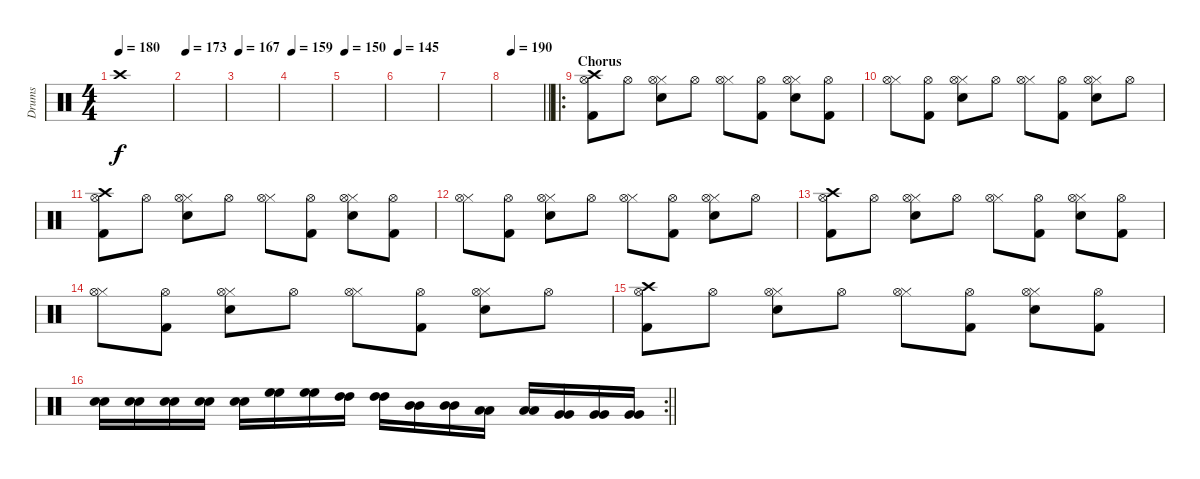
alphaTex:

\track ("Drums" "Drums") {instrument percussion}
\staff {score}
\articulation defaults
\ts (4 4)
\tempo 180
\clef neutral
\ks c "Crash high (hit)".1{dy f}
|
\tempo 173
|
\tempo 167
|
\tempo 159
|
\tempo 150
|
\tempo 145
|
|
\tempo (190 0.1875)
\barLineRight lightlight
|
\ro
\section ("" "Chorus")
("Hi-Hat (open)" "Kick (hit) 2" "Crash high (hit)").8 "Hi-Hat (open)".8 ("Hi-Hat (closed)" "Snare (hit) 2" "Hi-Hat (open)").8 "Hi-Hat (open)".8 ("Hi-Hat (closed)" "Hi-Hat (open)").8 ("Kick (hit) 2" "Hi-Hat (open)").8 ("Hi-Hat (closed)" "Snare (hit) 2" "Hi-Hat (open)").8 ("Kick (hit) 2" "Hi-Hat (open)").8 |
("Hi-Hat (closed)" "Hi-Hat (open)").8 ("Kick (hit) 2" "Hi-Hat (open)").8 ("Hi-Hat (closed)" "Snare (hit) 2" "Hi-Hat (open)").8 "Hi-Hat (open)".8 ("Hi-Hat (closed)" "Hi-Hat (open)").8 ("Kick (hit) 2" "Hi-Hat (open)").8 ("Hi-Hat (closed)" "Snare (hit) 2" "Hi-Hat (open)").8 "Hi-Hat (open)".8 |
("Hi-Hat (open)" "Kick (hit) 2" "Crash high (hit)").8 "Hi-Hat (open)".8 ("Hi-Hat (closed)" "Snare (hit) 2" "Hi-Hat (open)").8 "Hi-Hat (open)".8 ("Hi-Hat (closed)" "Hi-Hat (open)").8 ("Kick (hit) 2" "Hi-Hat (open)").8 ("Hi-Hat (closed)" "Snare (hit) 2" "Hi-Hat (open)").8 ("Kick (hit) 2" "Hi-Hat (open)").8 |
("Hi-Hat (closed)" "Hi-Hat (open)").8 ("Kick (hit) 2" "Hi-Hat (open)").8 ("Hi-Hat (closed)" "Snare (hit) 2" "Hi-Hat (open)").8 "Hi-Hat (open)".8 ("Hi-Hat (closed)" "Hi-Hat (open)").8 ("Kick (hit) 2" "Hi-Hat (open)").8 ("Hi-Hat (closed)" "Snare (hit) 2" "Hi-Hat (open)").8 "Hi-Hat (open)".8 |
("Hi-Hat (open)" "Kick (hit) 2" "Crash high (hit)").8 "Hi-Hat (open)".8 ("Hi-Hat (closed)" "Snare (hit) 2" "Hi-Hat (open)").8 "Hi-Hat (open)".8 ("Hi-Hat (closed)" "Hi-Hat (open)").8 ("Kick (hit) 2" "Hi-Hat (open)").8 ("Hi-Hat (closed)" "Snare (hit) 2" "Hi-Hat (open)").8 ("Kick (hit) 2" "Hi-Hat (open)").8 |
("Hi-Hat (closed)" "Hi-Hat (open)").8 ("Kick (hit) 2" "Hi-Hat (open)").8 ("Hi-Hat (closed)" "Snare (hit) 2" "Hi-Hat (open)").8 "Hi-Hat (open)".8 ("Hi-Hat (closed)" "Hi-Hat (open)").8 ("Kick (hit) 2" "Hi-Hat (open)").8 ("Hi-Hat (closed)" "Snare (hit) 2" "Hi-Hat (open)").8 "Hi-Hat (open)".8 |
("Hi-Hat (open)" "Kick (hit) 2" "Crash high (hit)").8 "Hi-Hat (open)".8 ("Hi-Hat (closed)" "Snare (hit) 2" "Hi-Hat (open)").8 "Hi-Hat (open)".8 ("Hi-Hat (closed)" "Hi-Hat (open)").8 ("Kick (hit) 2" "Hi-Hat (open)").8 ("Hi-Hat (closed)" "Snare (hit) 2" "Hi-Hat (open)").8 ("Kick (hit) 2" "Hi-Hat (open)").8 |
\rc 2
\barLineRight lightlight
("Snare (hit) 2" "Electric Snare (hit)").16 ("Snare (hit) 2" "Electric Snare (hit)").16 ("Snare (hit) 2" "Electric Snare (hit)").16 ("Snare (hit) 2" "Electric Snare (hit)").16 ("Snare (hit) 2" "Electric Snare (hit)").16 ("High Floor Tom (hit)" "High Floor Tom (hit)").16 ("High Floor Tom (hit)" "High Floor Tom (hit)").16 ("High Tom (hit)" "High Tom (hit)").16 ("High Tom (hit)" "High Tom (hit)").16 ("Mid Tom (hit)" "Mid Tom (hit)").16 ("Mid Tom (hit)" "Mid Tom (hit)").16 ("Low Tom (hit)" "Low Tom (hit)").16 ("Low Tom (hit)" "Low Tom (hit)").16 ("Very Low Tom (hit)" "Very Low Tom (hit)").16 ("Very Low Tom (hit)" "Very Low Tom (hit)").16 ("Very Low Tom (hit)" "Very Low Tom (hit)").16
